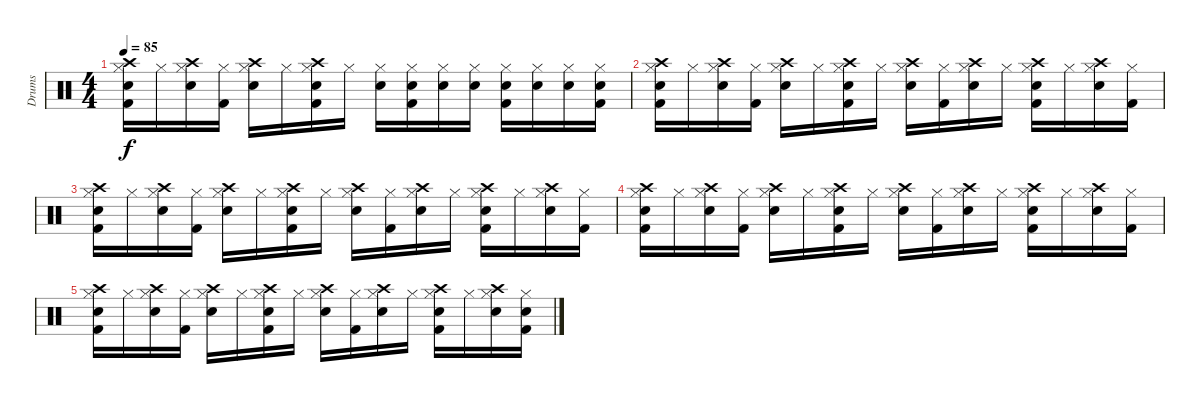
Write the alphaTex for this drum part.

\track ("Drums" "Drums") {instrument percussion}
\staff {score}
\articulation defaults
\ts (4 4)
\tempo 85
\clef neutral
\ks c
("Crash high (hit)" "Hi-Hat (closed)" "Electric Snare (hit)" "Kick (hit) 2").16{dy f} "Hi-Hat (closed)".16 ("Crash high (hit)" "Hi-Hat (closed)" "Electric Snare (hit)").16 ("Hi-Hat (closed)" "Kick (hit) 2").16 ("Crash high (hit)" "Hi-Hat (closed)" "Electric Snare (hit)").16 "Hi-Hat (closed)".16 ("Crash high (hit)" "Hi-Hat (closed)" "Electric Snare (hit)" "Kick (hit) 2").16 "Hi-Hat (closed)".16 ("Hi-Hat (closed)" "Electric Snare (hit)").16 ("Hi-Hat (closed)" "Electric Snare (hit)" "Kick (hit) 2").16 ("Hi-Hat (closed)" "Electric Snare (hit)").16 ("Hi-Hat (closed)" "Electric Snare (hit)").16 ("Hi-Hat (closed)" "Electric Snare (hit)" "Kick (hit) 2").16 ("Hi-Hat (closed)" "Electric Snare (hit)").16 ("Hi-Hat (closed)" "Electric Snare (hit)").16 ("Hi-Hat (closed)" "Electric Snare (hit)" "Kick (hit) 2").16 |
("Crash high (hit)" "Hi-Hat (closed)" "Electric Snare (hit)" "Kick (hit) 2").16 "Hi-Hat (closed)".16 ("Crash high (hit)" "Hi-Hat (closed)" "Electric Snare (hit)").16 ("Hi-Hat (closed)" "Kick (hit) 2").16 ("Crash high (hit)" "Hi-Hat (closed)" "Electric Snare (hit)").16 "Hi-Hat (closed)".16 ("Crash high (hit)" "Hi-Hat (closed)" "Electric Snare (hit)" "Kick (hit) 2").16 "Hi-Hat (closed)".16 ("Crash high (hit)" "Hi-Hat (closed)" "Electric Snare (hit)").16 ("Hi-Hat (closed)" "Kick (hit) 2").16 ("Crash high (hit)" "Hi-Hat (closed)" "Electric Snare (hit)").16 "Hi-Hat (closed)".16 ("Crash high (hit)" "Hi-Hat (closed)" "Electric Snare (hit)" "Kick (hit) 2").16 "Hi-Hat (closed)".16 ("Crash high (hit)" "Hi-Hat (closed)" "Electric Snare (hit)").16 ("Hi-Hat (closed)" "Kick (hit) 2").16 |
("Crash high (hit)" "Hi-Hat (closed)" "Electric Snare (hit)" "Kick (hit) 2").16 "Hi-Hat (closed)".16 ("Crash high (hit)" "Hi-Hat (closed)" "Electric Snare (hit)").16 ("Hi-Hat (closed)" "Kick (hit) 2").16 ("Crash high (hit)" "Hi-Hat (closed)" "Electric Snare (hit)").16 "Hi-Hat (closed)".16 ("Crash high (hit)" "Hi-Hat (closed)" "Electric Snare (hit)" "Kick (hit) 2").16 "Hi-Hat (closed)".16 ("Crash high (hit)" "Hi-Hat (closed)" "Electric Snare (hit)").16 ("Hi-Hat (closed)" "Kick (hit) 2").16 ("Crash high (hit)" "Hi-Hat (closed)" "Electric Snare (hit)").16 "Hi-Hat (closed)".16 ("Crash high (hit)" "Hi-Hat (closed)" "Electric Snare (hit)" "Kick (hit) 2").16 "Hi-Hat (closed)".16 ("Crash high (hit)" "Hi-Hat (closed)" "Electric Snare (hit)").16 ("Hi-Hat (closed)" "Kick (hit) 2").16 |
("Crash high (hit)" "Hi-Hat (closed)" "Electric Snare (hit)" "Kick (hit) 2").16 "Hi-Hat (closed)".16 ("Crash high (hit)" "Hi-Hat (closed)" "Electric Snare (hit)").16 ("Hi-Hat (closed)" "Kick (hit) 2").16 ("Crash high (hit)" "Hi-Hat (closed)" "Electric Snare (hit)").16 "Hi-Hat (closed)".16 ("Crash high (hit)" "Hi-Hat (closed)" "Electric Snare (hit)" "Kick (hit) 2").16 "Hi-Hat (closed)".16 ("Crash high (hit)" "Hi-Hat (closed)" "Electric Snare (hit)").16 ("Hi-Hat (closed)" "Kick (hit) 2").16 ("Crash high (hit)" "Hi-Hat (closed)" "Electric Snare (hit)").16 "Hi-Hat (closed)".16 ("Crash high (hit)" "Hi-Hat (closed)" "Electric Snare (hit)" "Kick (hit) 2").16 "Hi-Hat (closed)".16 ("Crash high (hit)" "Hi-Hat (closed)" "Electric Snare (hit)").16 ("Hi-Hat (closed)" "Kick (hit) 2").16 |
("Crash high (hit)" "Hi-Hat (closed)" "Electric Snare (hit)" "Kick (hit) 2").16 "Hi-Hat (closed)".16 ("Crash high (hit)" "Hi-Hat (closed)" "Electric Snare (hit)").16 ("Hi-Hat (closed)" "Kick (hit) 2").16 ("Crash high (hit)" "Hi-Hat (closed)" "Electric Snare (hit)").16 "Hi-Hat (closed)".16 ("Crash high (hit)" "Hi-Hat (closed)" "Electric Snare (hit)" "Kick (hit) 2").16 "Hi-Hat (closed)".16 ("Crash high (hit)" "Hi-Hat (closed)" "Electric Snare (hit)").16 ("Hi-Hat (closed)" "Kick (hit) 2").16 ("Crash high (hit)" "Hi-Hat (closed)" "Electric Snare (hit)").16 "Hi-Hat (closed)".16 ("Crash high (hit)" "Hi-Hat (closed)" "Electric Snare (hit)" "Kick (hit) 2").16 "Hi-Hat (closed)".16 ("Crash high (hit)" "Hi-Hat (closed)" "Electric Snare (hit)").16 ("Hi-Hat (closed)" "Electric Snare (hit)" "Kick (hit) 2").16
